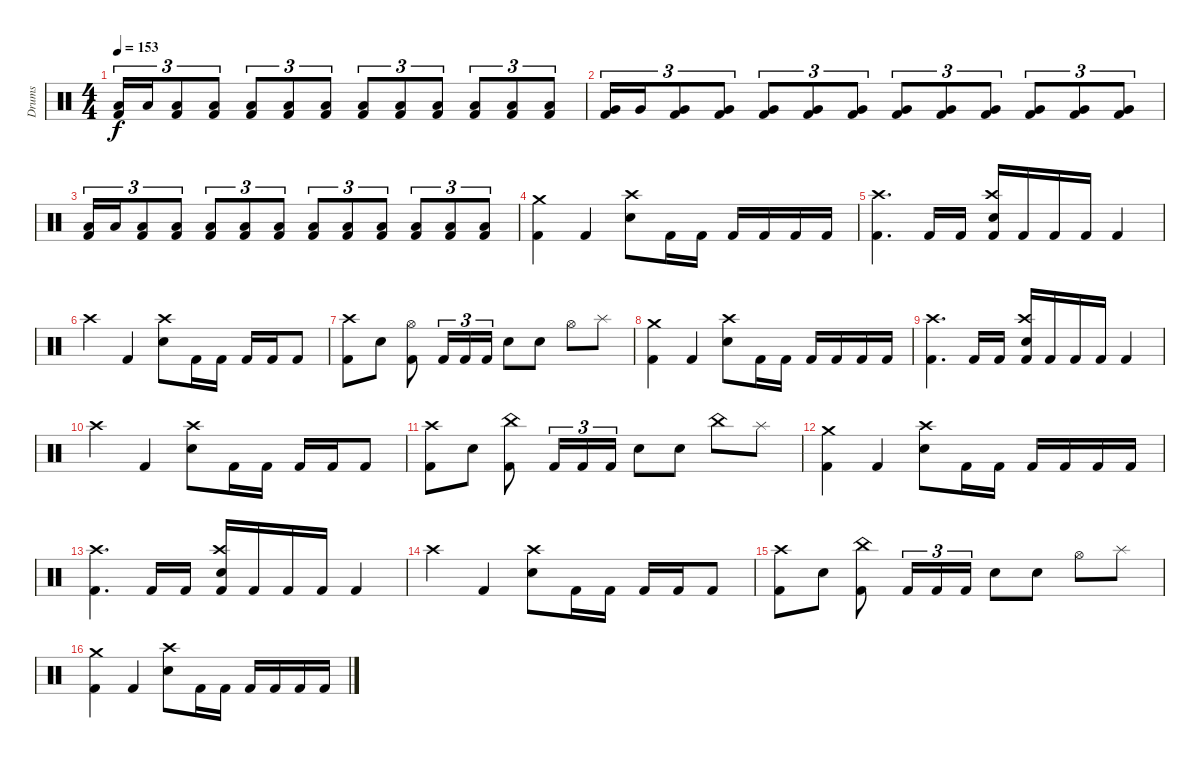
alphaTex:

\track ("Drums" "Drums") {instrument percussion}
\staff
\articulation defaults
\ts (4 4)
\tempo 153
\clef neutral
\ks c
("Low Tom (hit)" "Kick (hit) 2").16{tu (3 2) dy f} "Low Tom (hit)".16{tu (3 2)} ("Low Tom (hit)" "Kick (hit) 2").8{tu (3 2)} ("Low Tom (hit)" "Kick (hit) 2").8{tu (3 2)} ("Low Tom (hit)" "Kick (hit) 2").8{tu (3 2)} ("Low Tom (hit)" "Kick (hit) 2").8{tu (3 2)} ("Low Tom (hit)" "Kick (hit) 2").8{tu (3 2)} ("Low Tom (hit)" "Kick (hit) 2").8{tu (3 2)} ("Low Tom (hit)" "Kick (hit) 2").8{tu (3 2)} ("Low Tom (hit)" "Kick (hit) 2").8{tu (3 2)} ("Low Tom (hit)" "Kick (hit) 2").8{tu (3 2)} ("Low Tom (hit)" "Kick (hit) 2").8{tu (3 2)} ("Low Tom (hit)" "Kick (hit) 2").8{tu (3 2)} |
("Very Low Tom (hit)" "Kick (hit) 2").16{tu (3 2)} "Very Low Tom (hit)".16{tu (3 2)} ("Very Low Tom (hit)" "Kick (hit) 2").8{tu (3 2)} ("Very Low Tom (hit)" "Kick (hit) 2").8{tu (3 2)} ("Very Low Tom (hit)" "Kick (hit) 2").8{tu (3 2)} ("Very Low Tom (hit)" "Kick (hit) 2").8{tu (3 2)} ("Very Low Tom (hit)" "Kick (hit) 2").8{tu (3 2)} ("Very Low Tom (hit)" "Kick (hit) 2").8{tu (3 2)} ("Very Low Tom (hit)" "Kick (hit) 2").8{tu (3 2)} ("Very Low Tom (hit)" "Kick (hit) 2").8{tu (3 2)} ("Very Low Tom (hit)" "Kick (hit) 2").8{tu (3 2)} ("Very Low Tom (hit)" "Kick (hit) 2").8{tu (3 2)} ("Very Low Tom (hit)" "Kick (hit) 2").8{tu (3 2)} |
("Low Floor Tom (hit)" "Kick (hit) 2").16{tu (3 2)} "Low Floor Tom (hit)".16{tu (3 2)} ("Low Floor Tom (hit)" "Kick (hit) 2").8{tu (3 2)} ("Low Floor Tom (hit)" "Kick (hit) 2").8{tu (3 2)} ("Low Floor Tom (hit)" "Kick (hit) 2").8{tu (3 2)} ("Low Floor Tom (hit)" "Kick (hit) 2").8{tu (3 2)} ("Low Floor Tom (hit)" "Kick (hit) 2").8{tu (3 2)} ("Low Floor Tom (hit)" "Kick (hit) 2").8{tu (3 2)} ("Low Floor Tom (hit)" "Kick (hit) 2").8{tu (3 2)} ("Low Floor Tom (hit)" "Kick (hit) 2").8{tu (3 2)} ("Low Floor Tom (hit)" "Kick (hit) 2").8{tu (3 2)} ("Low Floor Tom (hit)" "Kick (hit) 2").8{tu (3 2)} ("Low Floor Tom (hit)" "Kick (hit) 2").8{tu (3 2)} |
("Crash medium (hit)" "Kick (hit) 2").4 "Kick (hit) 2".4 ("Crash high (hit)" "Electric Snare (hit)").8 "Kick (hit) 2".16 "Kick (hit) 2".16 "Kick (hit) 2".16 "Kick (hit) 2".16 "Kick (hit) 2".16 "Kick (hit) 2".16 |
("Crash high (hit)" "Kick (hit) 2").4{d} "Kick (hit) 2".16 "Kick (hit) 2".16 ("Crash high (hit)" "Electric Snare (hit)" "Kick (hit) 2").16 "Kick (hit) 2".16 "Kick (hit) 2".16 "Kick (hit) 2".16 "Kick (hit) 2".4 |
"Crash high (hit)".4 "Kick (hit) 2".4 ("Crash high (hit)" "Electric Snare (hit)").8 "Kick (hit) 2".16 "Kick (hit) 2".16 "Kick (hit) 2".16 "Kick (hit) 2".16 "Kick (hit) 2".8 |
("Crash high (hit)" "Kick (hit) 2").8 "Electric Snare (hit)".8 ("Hi-Hat (open)" "Kick (hit) 2").8 "Kick (hit) 2".16{tu (3 2)} "Kick (hit) 2".16{tu (3 2)} "Kick (hit) 2".16{tu (3 2)} "Electric Snare (hit)".8 "Electric Snare (hit)".8 "Hi-Hat (open)".8 "Splash (hit)".8 |
("Crash medium (hit)" "Kick (hit) 2").4 "Kick (hit) 2".4 ("Crash high (hit)" "Electric Snare (hit)").8 "Kick (hit) 2".16 "Kick (hit) 2".16 "Kick (hit) 2".16 "Kick (hit) 2".16 "Kick (hit) 2".16 "Kick (hit) 2".16 |
("Crash high (hit)" "Kick (hit) 2").4{d} "Kick (hit) 2".16 "Kick (hit) 2".16 ("Crash high (hit)" "Electric Snare (hit)" "Kick (hit) 2").16 "Kick (hit) 2".16 "Kick (hit) 2".16 "Kick (hit) 2".16 "Kick (hit) 2".4 |
"Crash high (hit)".4 "Kick (hit) 2".4 ("Crash high (hit)" "Electric Snare (hit)").8 "Kick (hit) 2".16 "Kick (hit) 2".16 "Kick (hit) 2".16 "Kick (hit) 2".16 "Kick (hit) 2".8 |
("Crash high (hit)" "Kick (hit) 2").8 "Electric Snare (hit)".8 ("China (hit)" "Kick (hit) 2").8 "Kick (hit) 2".16{tu (3 2)} "Kick (hit) 2".16{tu (3 2)} "Kick (hit) 2".16{tu (3 2)} "Electric Snare (hit)".8 "Electric Snare (hit)".8 "China (hit)".8 "Splash (hit)".8 |
("Crash medium (hit)" "Kick (hit) 2").4 "Kick (hit) 2".4 ("Crash high (hit)" "Electric Snare (hit)").8 "Kick (hit) 2".16 "Kick (hit) 2".16 "Kick (hit) 2".16 "Kick (hit) 2".16 "Kick (hit) 2".16 "Kick (hit) 2".16 |
("Crash high (hit)" "Kick (hit) 2").4{d} "Kick (hit) 2".16 "Kick (hit) 2".16 ("Crash high (hit)" "Electric Snare (hit)" "Kick (hit) 2").16 "Kick (hit) 2".16 "Kick (hit) 2".16 "Kick (hit) 2".16 "Kick (hit) 2".4 |
"Crash high (hit)".4 "Kick (hit) 2".4 ("Crash high (hit)" "Electric Snare (hit)").8 "Kick (hit) 2".16 "Kick (hit) 2".16 "Kick (hit) 2".16 "Kick (hit) 2".16 "Kick (hit) 2".8 |
("Crash high (hit)" "Kick (hit) 2").8 "Electric Snare (hit)".8 ("China (hit)" "Kick (hit) 2").8 "Kick (hit) 2".16{tu (3 2)} "Kick (hit) 2".16{tu (3 2)} "Kick (hit) 2".16{tu (3 2)} "Electric Snare (hit)".8 "Electric Snare (hit)".8 "Hi-Hat (open)".8 "Splash (hit)".8 |
("Crash medium (hit)" "Kick (hit) 2").4 "Kick (hit) 2".4 ("Crash high (hit)" "Electric Snare (hit)").8 "Kick (hit) 2".16 "Kick (hit) 2".16 "Kick (hit) 2".16 "Kick (hit) 2".16 "Kick (hit) 2".16 "Kick (hit) 2".16
